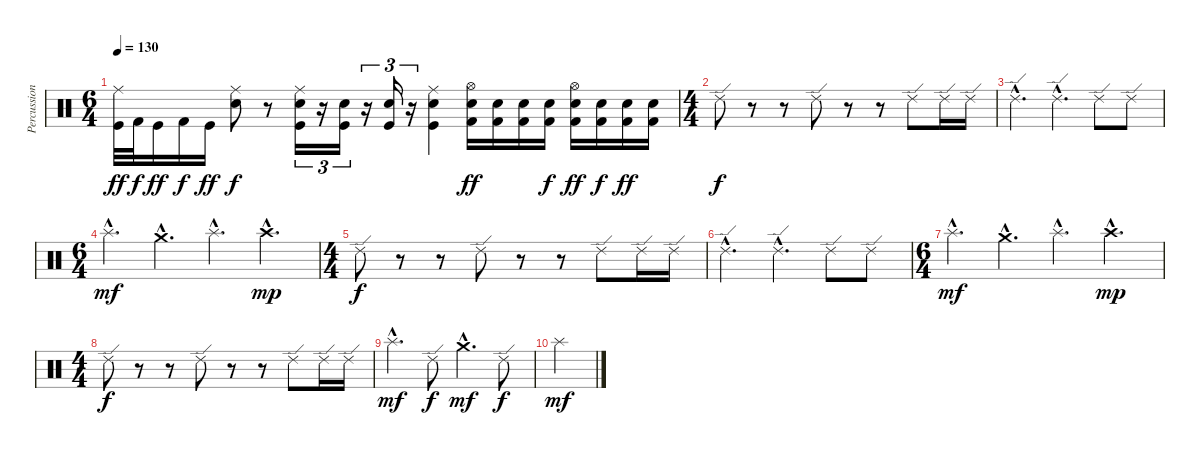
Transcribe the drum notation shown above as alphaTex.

\track ("Percussioni" "Percussion") {instrument percussion}
\staff {score}
\articulation defaults
\ts (6 4)
\tempo 130
\clef neutral
\ks c
("Ride (middle)" "Kick (hit)").32{dy ff} "Kick (hit) 2".32{dy f} "Kick (hit)".16{dy ff} "Kick (hit) 2".16{dy f} "Kick (hit)".16{dy ff} ("Ride (middle)" "Snare (hit) 2").8{dy f} r.8 ("Ride (middle)" "Snare (hit) 2" "Kick (hit)").16{tu (3 2)} r.16{tu (3 2)} ("Snare (hit) 2" "Kick (hit)").16{tu (3 2)} r.16{tu (3 2)} ("Snare (hit) 2" "Kick (hit)").16{tu (3 2)} r.16{tu (3 2)} ("Ride (middle)" "Snare (hit) 2" "Kick (hit)").4 ("Hi-Hat (open)" "Snare (hit) 2" "Kick (hit) 2").16{dy ff} ("Snare (hit) 2" "Kick (hit) 2").16 ("Snare (hit) 2" "Kick (hit) 2").16 ("Snare (hit) 2" "Kick (hit) 2").16{dy f} ("Hi-Hat (open)" "Snare (hit) 2" "Kick (hit) 2").16{dy ff} ("Snare (hit) 2" "Kick (hit) 2").16{dy f} ("Snare (hit) 2" "Kick (hit) 2").16{dy ff} ("Snare (hit) 2" "Kick (hit) 2").16 |
\ts (4 4)
"Ride (edge) 2".8{dy f} r.8 r.8 "Ride (edge) 2".8 r.8 r.8 "Ride (edge) 2".8 "Ride (edge) 2".16 "Ride (edge) 2".16 |
"Ride (edge) 2"{hac}.4{d} "Ride (edge) 2"{hac}.4{d} "Ride (edge) 2".8 "Ride (edge) 2".8 |
\ts (6 4)
"Splash (hit)"{hac}.4{d dy mf} "Crash medium (hit)"{hac}.4{d} "Splash (hit)"{hac}.4{d} "Crash high (hit)"{hac}.4{d dy mp} |
\ts (4 4)
"Ride (edge) 2".8{dy f} r.8 r.8 "Ride (edge) 2".8 r.8 r.8 "Ride (edge) 2".8 "Ride (edge) 2".16 "Ride (edge) 2".16 |
"Ride (edge) 2"{hac}.4{d} "Ride (edge) 2"{hac}.4{d} "Ride (edge) 2".8 "Ride (edge) 2".8 |
\ts (6 4)
"Splash (hit)"{hac}.4{d dy mf} "Crash medium (hit)"{hac}.4{d} "Splash (hit)"{hac}.4{d} "Crash high (hit)"{hac}.4{d dy mp} |
\ts (4 4)
"Ride (edge) 2".8{dy f} r.8 r.8 "Ride (edge) 2".8 r.8 r.8 "Ride (edge) 2".8 "Ride (edge) 2".16 "Ride (edge) 2".16 |
"Splash (hit)"{hac}.4{d dy mf} "Ride (edge) 2".8{dy f} "Crash medium (hit)"{hac}.4{d dy mf} "Ride (edge) 2".8{dy f} |
"Splash (hit)".4{dy mf}
